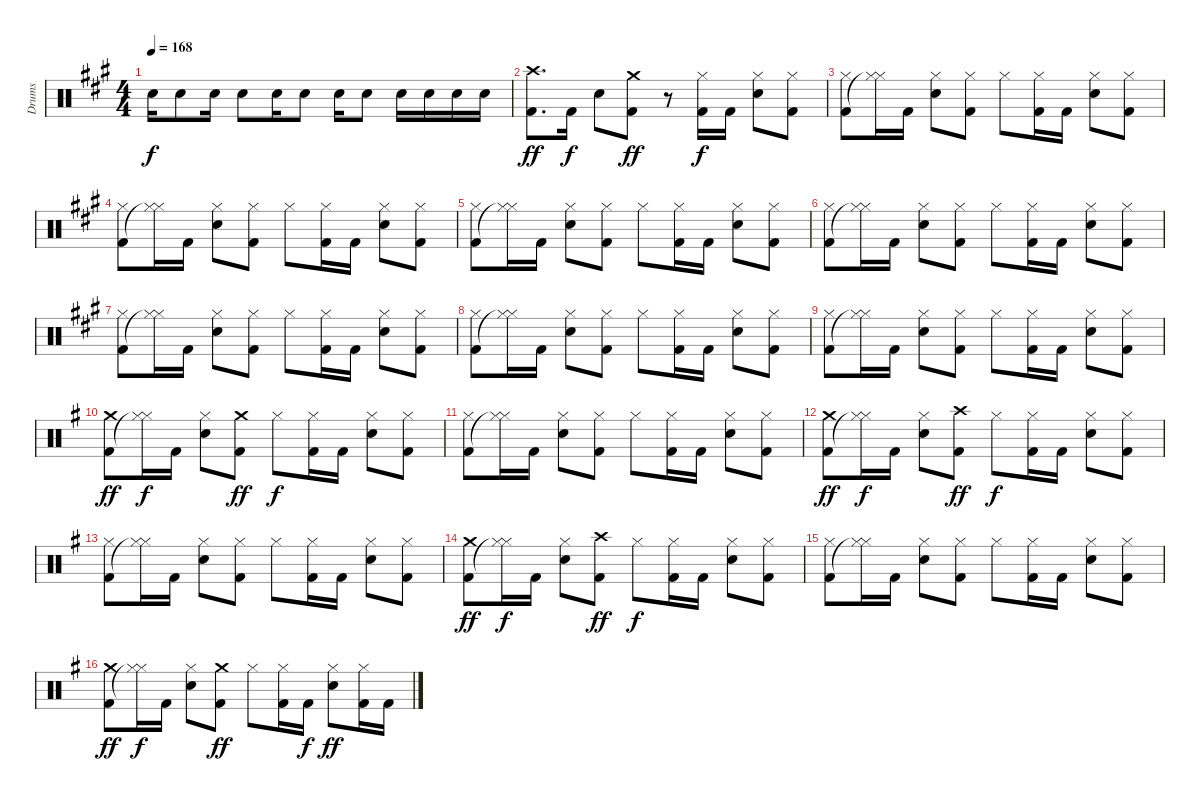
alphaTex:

\track ("Drums" "Drums") {instrument percussion}
\staff {score}
\articulation defaults
\ts (4 4)
\tempo 168
\clef neutral
\ks a "Snare (hit) 2".16{dy f} "Snare (hit) 2".8 "Snare (hit) 2".16 "Snare (hit) 2".8 "Snare (hit) 2".16 "Snare (hit) 2".8 "Snare (hit) 2".16 "Snare (hit) 2".8 "Snare (hit) 2".16 "Snare (hit) 2".16 "Snare (hit) 2".16 "Snare (hit) 2".16
|
("Crash high (hit)" "Kick (hit) 2").8{d dy ff} "Kick (hit) 2".16{dy f} "Snare (hit) 2".8 ("Crash medium (hit)" "Kick (hit) 2").8{dy ff} r.8 ("Hi-Hat (closed)" "Kick (hit) 2").16{dy f} "Kick (hit) 2".16 ("Hi-Hat (closed)" "Snare (hit) 2").8 ("Hi-Hat (closed)" "Kick (hit) 2").8 |
("Hi-Hat (closed)" "Kick (hit) 2").8 ("Hi-Hat (closed)" "Hi-Hat (closed)"{t}).16 "Kick (hit) 2".16 ("Hi-Hat (closed)" "Snare (hit) 2").8 ("Hi-Hat (closed)" "Kick (hit) 2").8 "Hi-Hat (closed)".8 ("Hi-Hat (closed)" "Kick (hit) 2").16 "Kick (hit) 2".16 ("Hi-Hat (closed)" "Snare (hit) 2").8 ("Hi-Hat (closed)" "Kick (hit) 2").8 |
("Hi-Hat (closed)" "Kick (hit) 2").8 ("Hi-Hat (closed)" "Hi-Hat (closed)"{t}).16 "Kick (hit) 2".16 ("Hi-Hat (closed)" "Snare (hit) 2").8 ("Hi-Hat (closed)" "Kick (hit) 2").8 "Hi-Hat (closed)".8 ("Hi-Hat (closed)" "Kick (hit) 2").16 "Kick (hit) 2".16 ("Hi-Hat (closed)" "Snare (hit) 2").8 ("Hi-Hat (closed)" "Kick (hit) 2").8 |
("Hi-Hat (closed)" "Kick (hit) 2").8 ("Hi-Hat (closed)" "Hi-Hat (closed)"{t}).16 "Kick (hit) 2".16 ("Hi-Hat (closed)" "Snare (hit) 2").8 ("Hi-Hat (closed)" "Kick (hit) 2").8 "Hi-Hat (closed)".8 ("Hi-Hat (closed)" "Kick (hit) 2").16 "Kick (hit) 2".16 ("Hi-Hat (closed)" "Snare (hit) 2").8 ("Hi-Hat (closed)" "Kick (hit) 2").8 |
("Hi-Hat (closed)" "Kick (hit) 2").8 ("Hi-Hat (closed)" "Hi-Hat (closed)"{t}).16 "Kick (hit) 2".16 ("Hi-Hat (closed)" "Snare (hit) 2").8 ("Hi-Hat (closed)" "Kick (hit) 2").8 "Hi-Hat (closed)".8 ("Hi-Hat (closed)" "Kick (hit) 2").16 "Kick (hit) 2".16 ("Hi-Hat (closed)" "Snare (hit) 2").8 ("Hi-Hat (closed)" "Kick (hit) 2").8 |
("Hi-Hat (closed)" "Kick (hit) 2").8 ("Hi-Hat (closed)" "Hi-Hat (closed)"{t}).16 "Kick (hit) 2".16 ("Hi-Hat (closed)" "Snare (hit) 2").8 ("Hi-Hat (closed)" "Kick (hit) 2").8 "Hi-Hat (closed)".8 ("Hi-Hat (closed)" "Kick (hit) 2").16 "Kick (hit) 2".16 ("Hi-Hat (closed)" "Snare (hit) 2").8 ("Hi-Hat (closed)" "Kick (hit) 2").8 |
("Hi-Hat (closed)" "Kick (hit) 2").8 ("Hi-Hat (closed)" "Hi-Hat (closed)"{t}).16 "Kick (hit) 2".16 ("Hi-Hat (closed)" "Snare (hit) 2").8 ("Hi-Hat (closed)" "Kick (hit) 2").8 "Hi-Hat (closed)".8 ("Hi-Hat (closed)" "Kick (hit) 2").16 "Kick (hit) 2".16 ("Hi-Hat (closed)" "Snare (hit) 2").8 ("Hi-Hat (closed)" "Kick (hit) 2").8 |
("Hi-Hat (closed)" "Kick (hit) 2").8 ("Hi-Hat (closed)" "Hi-Hat (closed)"{t}).16 "Kick (hit) 2".16 ("Hi-Hat (closed)" "Snare (hit) 2").8 ("Hi-Hat (closed)" "Kick (hit) 2").8 "Hi-Hat (closed)".8 ("Hi-Hat (closed)" "Kick (hit) 2").16 "Kick (hit) 2".16 ("Hi-Hat (closed)" "Snare (hit) 2").8 ("Hi-Hat (closed)" "Kick (hit) 2").8 |
\ks g
("Crash medium (hit)" "Kick (hit) 2").8{dy ff} ("Hi-Hat (closed)" "Hi-Hat (closed)"{t}).16{dy f} "Kick (hit) 2".16 ("Hi-Hat (closed)" "Snare (hit) 2").8 ("Crash medium (hit)" "Kick (hit) 2").8{dy ff} "Hi-Hat (closed)".8{dy f} ("Hi-Hat (closed)" "Kick (hit) 2").16 "Kick (hit) 2".16 ("Hi-Hat (closed)" "Snare (hit) 2").8 ("Hi-Hat (closed)" "Kick (hit) 2").8 |
("Hi-Hat (closed)" "Kick (hit) 2").8 ("Hi-Hat (closed)" "Hi-Hat (closed)"{t}).16 "Kick (hit) 2".16 ("Hi-Hat (closed)" "Snare (hit) 2").8 ("Hi-Hat (closed)" "Kick (hit) 2").8 "Hi-Hat (closed)".8 ("Hi-Hat (closed)" "Kick (hit) 2").16 "Kick (hit) 2".16 ("Hi-Hat (closed)" "Snare (hit) 2").8 ("Hi-Hat (closed)" "Kick (hit) 2").8 |
("Crash medium (hit)" "Kick (hit) 2").8{dy ff} ("Hi-Hat (closed)" "Hi-Hat (closed)"{t}).16{dy f} "Kick (hit) 2".16 ("Hi-Hat (closed)" "Snare (hit) 2").8 ("Crash high (hit)" "Kick (hit) 2").8{dy ff} "Hi-Hat (closed)".8{dy f} ("Hi-Hat (closed)" "Kick (hit) 2").16 "Kick (hit) 2".16 ("Hi-Hat (closed)" "Snare (hit) 2").8 ("Hi-Hat (closed)" "Kick (hit) 2").8 |
("Hi-Hat (closed)" "Kick (hit) 2").8 ("Hi-Hat (closed)" "Hi-Hat (closed)"{t}).16 "Kick (hit) 2".16 ("Hi-Hat (closed)" "Snare (hit) 2").8 ("Hi-Hat (closed)" "Kick (hit) 2").8 "Hi-Hat (closed)".8 ("Hi-Hat (closed)" "Kick (hit) 2").16 "Kick (hit) 2".16 ("Hi-Hat (closed)" "Snare (hit) 2").8 ("Hi-Hat (closed)" "Kick (hit) 2").8 |
("Crash medium (hit)" "Kick (hit) 2").8{dy ff} ("Hi-Hat (closed)" "Hi-Hat (closed)"{t}).16{dy f} "Kick (hit) 2".16 ("Hi-Hat (closed)" "Snare (hit) 2").8 ("Crash high (hit)" "Kick (hit) 2").8{dy ff} "Hi-Hat (closed)".8{dy f} ("Hi-Hat (closed)" "Kick (hit) 2").16 "Kick (hit) 2".16 ("Hi-Hat (closed)" "Snare (hit) 2").8 ("Hi-Hat (closed)" "Kick (hit) 2").8 |
("Hi-Hat (closed)" "Kick (hit) 2").8 ("Hi-Hat (closed)" "Hi-Hat (closed)"{t}).16 "Kick (hit) 2".16 ("Hi-Hat (closed)" "Snare (hit) 2").8 ("Hi-Hat (closed)" "Kick (hit) 2").8 "Hi-Hat (closed)".8 ("Hi-Hat (closed)" "Kick (hit) 2").16 "Kick (hit) 2".16 ("Hi-Hat (closed)" "Snare (hit) 2").8 ("Hi-Hat (closed)" "Kick (hit) 2").8 |
("Crash medium (hit)" "Kick (hit) 2").8{dy ff} ("Hi-Hat (closed)" "Hi-Hat (closed)"{t}).16{dy f} "Kick (hit) 2".16 ("Hi-Hat (closed)" "Snare (hit) 2").8 ("Crash medium (hit)" "Kick (hit) 2").8{dy ff} "Hi-Hat (closed)".8 ("Hi-Hat (closed)" "Kick (hit) 2").16 "Kick (hit) 2".16{dy f} ("Hi-Hat (closed)" "Snare (hit) 2").8{dy ff} ("Hi-Hat (closed)" "Kick (hit) 2").16 "Kick (hit) 2".16
